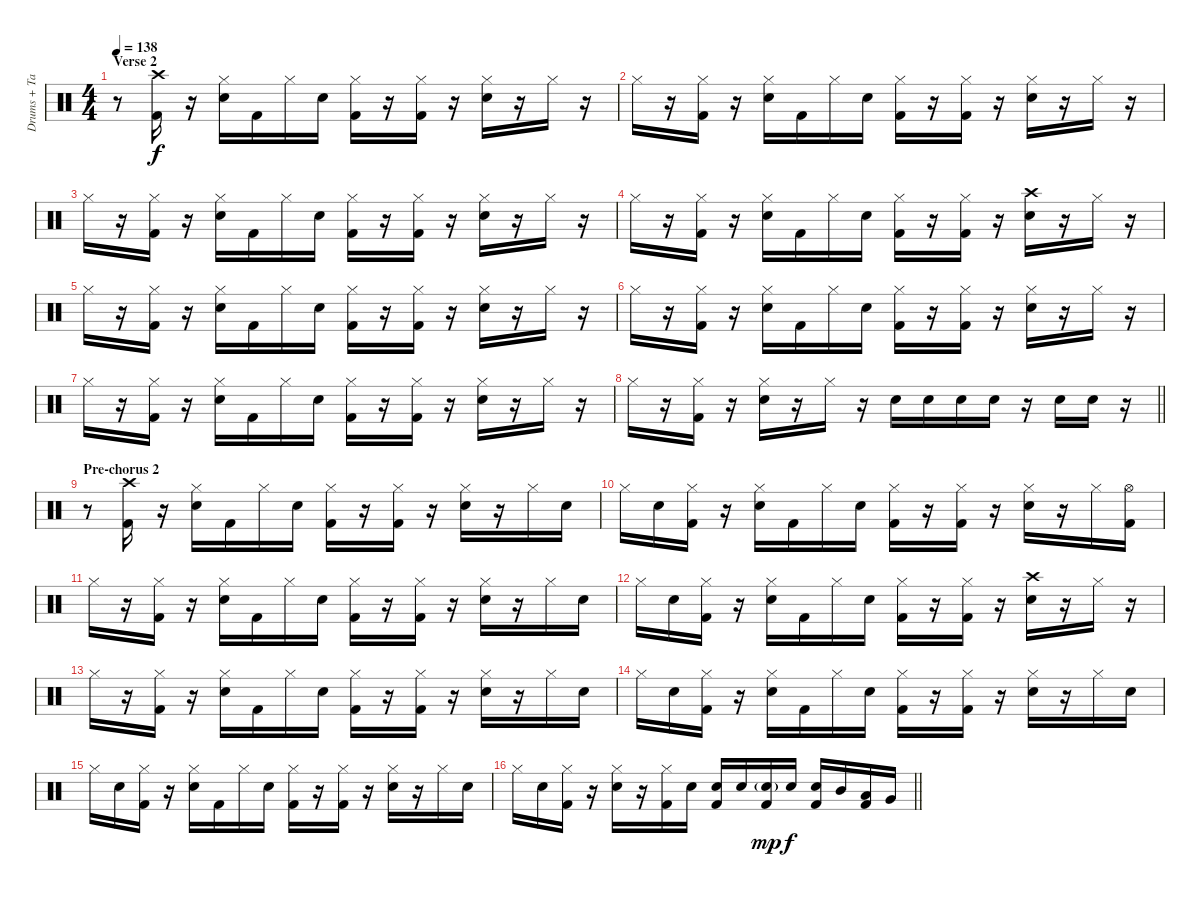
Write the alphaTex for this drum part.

\track ("Drums + Tambourine" "Drums + Ta") {instrument percussion}
\staff {score}
\articulation defaults
\ts (4 4)
\section ("" "Verse 2")
\tempo 138
\clef neutral
\ks c
r.8{dy f} ("Crash high (hit)" "Kick (hit) 2").16 r.16 ("Hi-Hat (closed)" "Electric Snare (hit)").16 "Kick (hit) 2".16 "Hi-Hat (closed)".16 "Electric Snare (hit)".16 ("Hi-Hat (closed)" "Kick (hit) 2").16 r.16 ("Hi-Hat (closed)" "Kick (hit) 2").16 r.16 ("Hi-Hat (closed)" "Electric Snare (hit)").16 r.16 "Hi-Hat (closed)".16 r.16 |
"Hi-Hat (closed)".16 r.16 ("Hi-Hat (closed)" "Kick (hit) 2").16 r.16 ("Hi-Hat (closed)" "Electric Snare (hit)").16 "Kick (hit) 2".16 "Hi-Hat (closed)".16 "Electric Snare (hit)".16 ("Hi-Hat (closed)" "Kick (hit) 2").16 r.16 ("Hi-Hat (closed)" "Kick (hit) 2").16 r.16 ("Hi-Hat (closed)" "Electric Snare (hit)").16 r.16 "Hi-Hat (closed)".16 r.16 |
"Hi-Hat (closed)".16 r.16 ("Hi-Hat (closed)" "Kick (hit) 2").16 r.16 ("Hi-Hat (closed)" "Electric Snare (hit)").16 "Kick (hit) 2".16 "Hi-Hat (closed)".16 "Electric Snare (hit)".16 ("Hi-Hat (closed)" "Kick (hit) 2").16 r.16 ("Hi-Hat (closed)" "Kick (hit) 2").16 r.16 ("Hi-Hat (closed)" "Electric Snare (hit)").16 r.16 "Hi-Hat (closed)".16 r.16 |
"Hi-Hat (closed)".16 r.16 ("Hi-Hat (closed)" "Kick (hit) 2").16 r.16 ("Hi-Hat (closed)" "Electric Snare (hit)").16 "Kick (hit) 2".16 "Hi-Hat (closed)".16 "Electric Snare (hit)".16 ("Hi-Hat (closed)" "Kick (hit) 2").16 r.16 ("Hi-Hat (closed)" "Kick (hit) 2").16 r.16 ("Crash high (hit)" "Electric Snare (hit)").16 r.16 "Hi-Hat (closed)".16 r.16 |
"Hi-Hat (closed)".16 r.16 ("Hi-Hat (closed)" "Kick (hit) 2").16 r.16 ("Hi-Hat (closed)" "Electric Snare (hit)").16 "Kick (hit) 2".16 "Hi-Hat (closed)".16 "Electric Snare (hit)".16 ("Hi-Hat (closed)" "Kick (hit) 2").16 r.16 ("Hi-Hat (closed)" "Kick (hit) 2").16 r.16 ("Hi-Hat (closed)" "Electric Snare (hit)").16 r.16 "Hi-Hat (closed)".16 r.16 |
"Hi-Hat (closed)".16 r.16 ("Hi-Hat (closed)" "Kick (hit) 2").16 r.16 ("Hi-Hat (closed)" "Electric Snare (hit)").16 "Kick (hit) 2".16 "Hi-Hat (closed)".16 "Electric Snare (hit)".16 ("Hi-Hat (closed)" "Kick (hit) 2").16 r.16 ("Hi-Hat (closed)" "Kick (hit) 2").16 r.16 ("Hi-Hat (closed)" "Electric Snare (hit)").16 r.16 "Hi-Hat (closed)".16 r.16 |
"Hi-Hat (closed)".16 r.16 ("Hi-Hat (closed)" "Kick (hit) 2").16 r.16 ("Hi-Hat (closed)" "Electric Snare (hit)").16 "Kick (hit) 2".16 "Hi-Hat (closed)".16 "Electric Snare (hit)".16 ("Hi-Hat (closed)" "Kick (hit) 2").16 r.16 ("Hi-Hat (closed)" "Kick (hit) 2").16 r.16 ("Hi-Hat (closed)" "Electric Snare (hit)").16 r.16 "Hi-Hat (closed)".16 r.16 |
\barLineRight lightlight "Hi-Hat (closed)".16
r.16 ("Hi-Hat (closed)" "Kick (hit) 2").16 r.16 ("Hi-Hat (closed)" "Electric Snare (hit)").16 r.16 "Hi-Hat (closed)".16 r.16 "Electric Snare (hit)".16 "Electric Snare (hit)".16 "Electric Snare (hit)".16 "Electric Snare (hit)".16 r.16 "Electric Snare (hit)".16 "Electric Snare (hit)".16 r.16 |
\section ("" "Pre-chorus 2")
r.8 ("Crash high (hit)" "Kick (hit) 2").16 r.16 ("Hi-Hat (closed)" "Electric Snare (hit)").16 "Kick (hit) 2".16 "Hi-Hat (closed)".16 "Electric Snare (hit)".16 ("Hi-Hat (closed)" "Kick (hit) 2").16 r.16 ("Hi-Hat (closed)" "Kick (hit) 2").16 r.16 ("Hi-Hat (closed)" "Electric Snare (hit)").16 r.16 "Hi-Hat (closed)".16 "Electric Snare (hit)".16 |
"Hi-Hat (closed)".16 "Electric Snare (hit)".16 ("Hi-Hat (closed)" "Kick (hit) 2").16 r.16 ("Hi-Hat (closed)" "Electric Snare (hit)").16 "Kick (hit) 2".16 "Hi-Hat (closed)".16 "Electric Snare (hit)".16 ("Hi-Hat (closed)" "Kick (hit) 2").16 r.16 ("Hi-Hat (closed)" "Kick (hit) 2").16 r.16 ("Hi-Hat (closed)" "Electric Snare (hit)").16 r.16 "Hi-Hat (closed)".16 ("Hi-Hat (open)" "Kick (hit) 2").16 |
"Hi-Hat (closed)".16 r.16 ("Hi-Hat (closed)" "Kick (hit) 2").16 r.16 ("Hi-Hat (closed)" "Electric Snare (hit)").16 "Kick (hit) 2".16 "Hi-Hat (closed)".16 "Electric Snare (hit)".16 ("Hi-Hat (closed)" "Kick (hit) 2").16 r.16 ("Hi-Hat (closed)" "Kick (hit) 2").16 r.16 ("Hi-Hat (closed)" "Electric Snare (hit)").16 r.16 "Hi-Hat (closed)".16 "Electric Snare (hit)".16 |
"Hi-Hat (closed)".16 "Electric Snare (hit)".16 ("Hi-Hat (closed)" "Kick (hit) 2").16 r.16 ("Hi-Hat (closed)" "Electric Snare (hit)").16 "Kick (hit) 2".16 "Hi-Hat (closed)".16 "Electric Snare (hit)".16 ("Hi-Hat (closed)" "Kick (hit) 2").16 r.16 ("Hi-Hat (closed)" "Kick (hit) 2").16 r.16 ("Crash high (hit)" "Electric Snare (hit)").16 r.16 "Hi-Hat (closed)".16 r.16 |
"Hi-Hat (closed)".16 r.16 ("Hi-Hat (closed)" "Kick (hit) 2").16 r.16 ("Hi-Hat (closed)" "Electric Snare (hit)").16 "Kick (hit) 2".16 "Hi-Hat (closed)".16 "Electric Snare (hit)".16 ("Hi-Hat (closed)" "Kick (hit) 2").16 r.16 ("Hi-Hat (closed)" "Kick (hit) 2").16 r.16 ("Hi-Hat (closed)" "Electric Snare (hit)").16 r.16 "Hi-Hat (closed)".16 "Electric Snare (hit)".16 |
"Hi-Hat (closed)".16 "Electric Snare (hit)".16 ("Hi-Hat (closed)" "Kick (hit) 2").16 r.16 ("Hi-Hat (closed)" "Electric Snare (hit)").16 "Kick (hit) 2".16 "Hi-Hat (closed)".16 "Electric Snare (hit)".16 ("Hi-Hat (closed)" "Kick (hit) 2").16 r.16 ("Hi-Hat (closed)" "Kick (hit) 2").16 r.16 ("Hi-Hat (closed)" "Electric Snare (hit)").16 r.16 "Hi-Hat (closed)".16 "Electric Snare (hit)".16 |
"Hi-Hat (closed)".16 "Electric Snare (hit)".16 ("Hi-Hat (closed)" "Kick (hit) 2").16 r.16 ("Hi-Hat (closed)" "Electric Snare (hit)").16 "Kick (hit) 2".16 "Hi-Hat (closed)".16 "Electric Snare (hit)".16 ("Hi-Hat (closed)" "Kick (hit) 2").16 r.16 ("Hi-Hat (closed)" "Kick (hit) 2").16 r.16 ("Hi-Hat (closed)" "Electric Snare (hit)").16 r.16 "Hi-Hat (closed)".16 "Electric Snare (hit)".16 |
\barLineRight lightlight "Hi-Hat (closed)".16 "Electric Snare (hit)".16
("Hi-Hat (closed)" "Kick (hit) 2").16 r.16 ("Hi-Hat (closed)" "Electric Snare (hit)").16 r.16 ("Hi-Hat (closed)" "Kick (hit) 2").16 "Electric Snare (hit)".16 ("Electric Snare (hit)" "Kick (hit) 2").16 "Electric Snare (hit)".16 ("Electric Snare (hit)"{g} "Kick (hit) 2").16{dy mp} "Electric Snare (hit)".16{dy f} ("Electric Snare (hit)" "Kick (hit) 2").16 "Mid Tom (hit)".16 ("Low Tom (hit)" "Kick (hit) 2").16 "Very Low Tom (hit)".16
